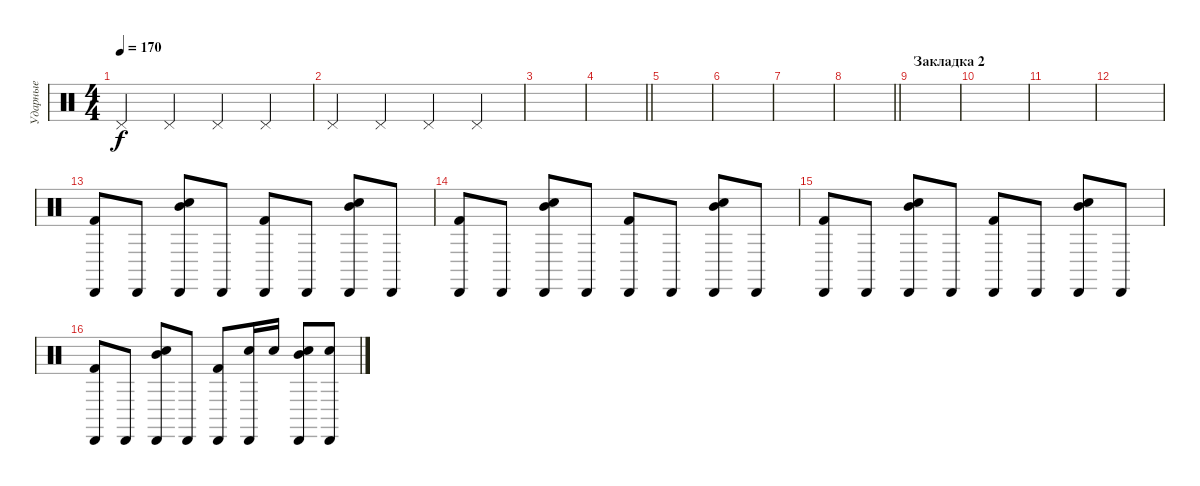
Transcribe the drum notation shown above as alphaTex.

\track ("Ударные" "Ударные") {instrument percussion}
\staff {score}
\articulation defaults
\ts (4 4)
\tempo 170
\clef neutral
\ks c "Pedal Hi-Hat (hit)".4{dy f} "Pedal Hi-Hat (hit)".4 "Pedal Hi-Hat (hit)".4 "Pedal Hi-Hat (hit)".4
|
"Pedal Hi-Hat (hit)".4 "Pedal Hi-Hat (hit)".4 "Pedal Hi-Hat (hit)".4 "Pedal Hi-Hat (hit)".4 |
|
\barLineRight lightlight
|
|
|
|
\barLineRight lightlight
|
\section ("" "Закладка 2")
|
|
|
|
("Kick (hit) 2" "Cabasa (hit)").8 "Cabasa (hit)".8 ("Electric Snare (hit)" "Mid Tom (hit)" "Cabasa (hit)").8 "Cabasa (hit)".8 ("Cabasa (hit)" "Kick (hit) 2").8 "Cabasa (hit)".8 ("Cabasa (hit)" "Electric Snare (hit)" "Mid Tom (hit)").8 "Cabasa (hit)".8 |
("Cabasa (hit)" "Kick (hit) 2").8 "Cabasa (hit)".8 ("Electric Snare (hit)" "Cabasa (hit)" "Mid Tom (hit)").8 "Cabasa (hit)".8 ("Cabasa (hit)" "Kick (hit) 2").8 "Cabasa (hit)".8 ("Mid Tom (hit)" "Electric Snare (hit)" "Cabasa (hit)").8 "Cabasa (hit)".8 |
("Kick (hit) 2" "Cabasa (hit)").8 "Cabasa (hit)".8 ("Electric Snare (hit)" "Mid Tom (hit)" "Cabasa (hit)").8 "Cabasa (hit)".8 ("Cabasa (hit)" "Kick (hit) 2").8 "Cabasa (hit)".8 ("Cabasa (hit)" "Electric Snare (hit)" "Mid Tom (hit)").8 "Cabasa (hit)".8 |
("Cabasa (hit)" "Kick (hit) 2").8 "Cabasa (hit)".8 ("Electric Snare (hit)" "Cabasa (hit)" "Mid Tom (hit)").8 "Cabasa (hit)".8 ("Cabasa (hit)" "Kick (hit) 2").8 ("Electric Snare (hit)" "Cabasa (hit)").16 "Electric Snare (hit)".16 ("Electric Snare (hit)" "Mid Tom (hit)" "Cabasa (hit)").8 ("Electric Snare (hit)" "Cabasa (hit)").8
